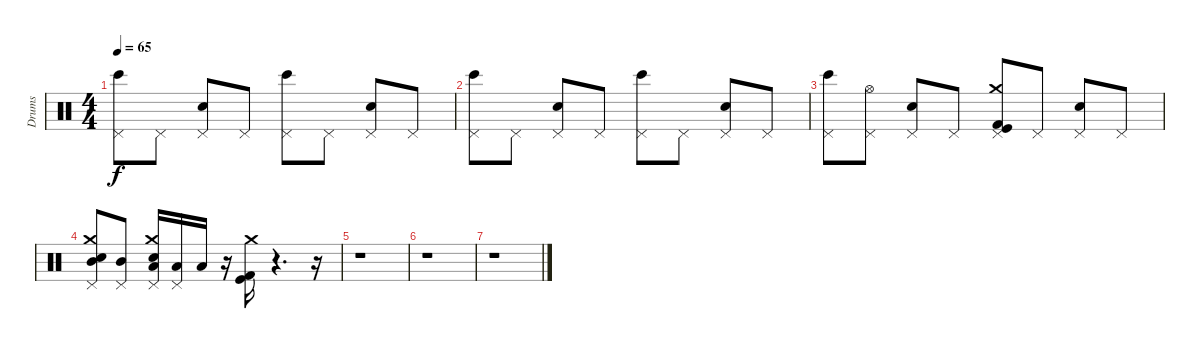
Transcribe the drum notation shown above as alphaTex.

\track ("Drums" "Drums") {instrument percussion}
\staff {score}
\articulation defaults
\ts (4 4)
\tempo 65
\clef neutral
\ks c
("Pedal Hi-Hat (hit)" "Bongo High (hit)").8{dy f} "Pedal Hi-Hat (hit)".8 ("Pedal Hi-Hat (hit)" "Snare (hit) 2").8 "Pedal Hi-Hat (hit)".8 ("Pedal Hi-Hat (hit)" "Bongo High (hit)").8 "Pedal Hi-Hat (hit)".8 ("Pedal Hi-Hat (hit)" "Snare (hit) 2").8 "Pedal Hi-Hat (hit)".8 |
("Pedal Hi-Hat (hit)" "Bongo High (hit)").8 "Pedal Hi-Hat (hit)".8 ("Pedal Hi-Hat (hit)" "Snare (hit) 2").8 "Pedal Hi-Hat (hit)".8 ("Pedal Hi-Hat (hit)" "Bongo High (hit)").8 "Pedal Hi-Hat (hit)".8 ("Pedal Hi-Hat (hit)" "Snare (hit) 2").8 "Pedal Hi-Hat (hit)".8 |
("Pedal Hi-Hat (hit)" "Bongo High (hit)").8 ("Pedal Hi-Hat (hit)" "Hi-Hat (open)").8 ("Pedal Hi-Hat (hit)" "Snare (hit) 2").8 "Pedal Hi-Hat (hit)".8 ("Pedal Hi-Hat (hit)" "Crash medium (hit)" "Kick (hit)" "Kick (hit) 2").8 "Pedal Hi-Hat (hit)".8 ("Pedal Hi-Hat (hit)" "Snare (hit) 2").8 "Pedal Hi-Hat (hit)".8 |
("Pedal Hi-Hat (hit)" "Crash medium (hit)" "Mid Tom (hit)" "Snare (hit) 2").8 ("Pedal Hi-Hat (hit)" "Mid Tom (hit)").8 ("Pedal Hi-Hat (hit)" "Crash medium (hit)" "Low Tom (hit)" "Snare (hit) 2").16 ("Pedal Hi-Hat (hit)" "Low Tom (hit)").16 "Low Tom (hit)".16 r.16 ("Crash medium (hit)" "Kick (hit)" "Kick (hit) 2").16 r.4{d} r.16 |
r.1 |
r.1 |
r.1
